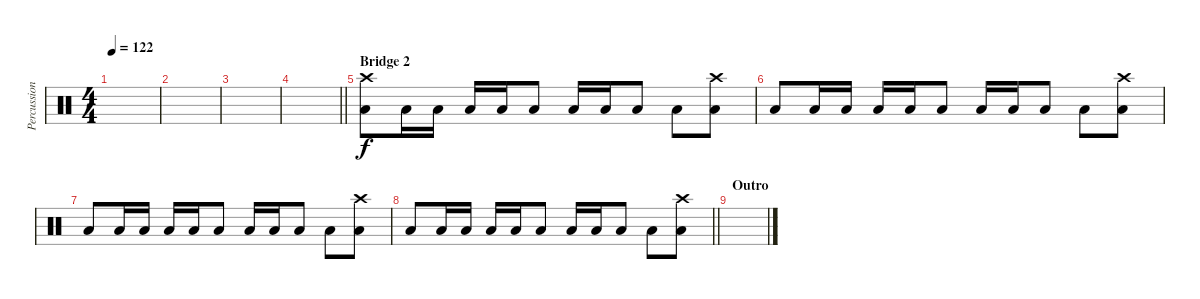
\track ("Percussion" "Percussion") {instrument percussion}
\staff {score}
\articulation defaults
\ts (4 4)
\tempo 122
\clef neutral
\ks c
|
|
|
\barLineRight lightlight
|
\section ("" "Bridge 2")
("Low Tom (hit)" "Crash high (hit)").8 "Low Tom (hit)".16 "Low Tom (hit)".16 "Low Tom (hit)".16 "Low Tom (hit)".16 "Low Tom (hit)".8 "Low Tom (hit)".16 "Low Tom (hit)".16 "Low Tom (hit)".8 "Low Tom (hit)".8 ("Low Tom (hit)" "Crash high (hit)").8 |
"Low Tom (hit)".8 "Low Tom (hit)".16 "Low Tom (hit)".16 "Low Tom (hit)".16 "Low Tom (hit)".16 "Low Tom (hit)".8 "Low Tom (hit)".16 "Low Tom (hit)".16 "Low Tom (hit)".8 "Low Tom (hit)".8 ("Low Tom (hit)" "Crash high (hit)").8 |
"Low Tom (hit)".8 "Low Tom (hit)".16 "Low Tom (hit)".16 "Low Tom (hit)".16 "Low Tom (hit)".16 "Low Tom (hit)".8 "Low Tom (hit)".16 "Low Tom (hit)".16 "Low Tom (hit)".8 "Low Tom (hit)".8 ("Low Tom (hit)" "Crash high (hit)").8 |
\barLineRight lightlight "Low Tom (hit)".8 "Low Tom (hit)".16 "Low Tom (hit)".16 "Low Tom (hit)".16 "Low Tom (hit)".16 "Low Tom (hit)".8 "Low Tom (hit)".16 "Low Tom (hit)".16 "Low Tom (hit)".8 "Low Tom (hit)".8
("Low Tom (hit)" "Crash high (hit)").8 |
\section ("" "Outro")
